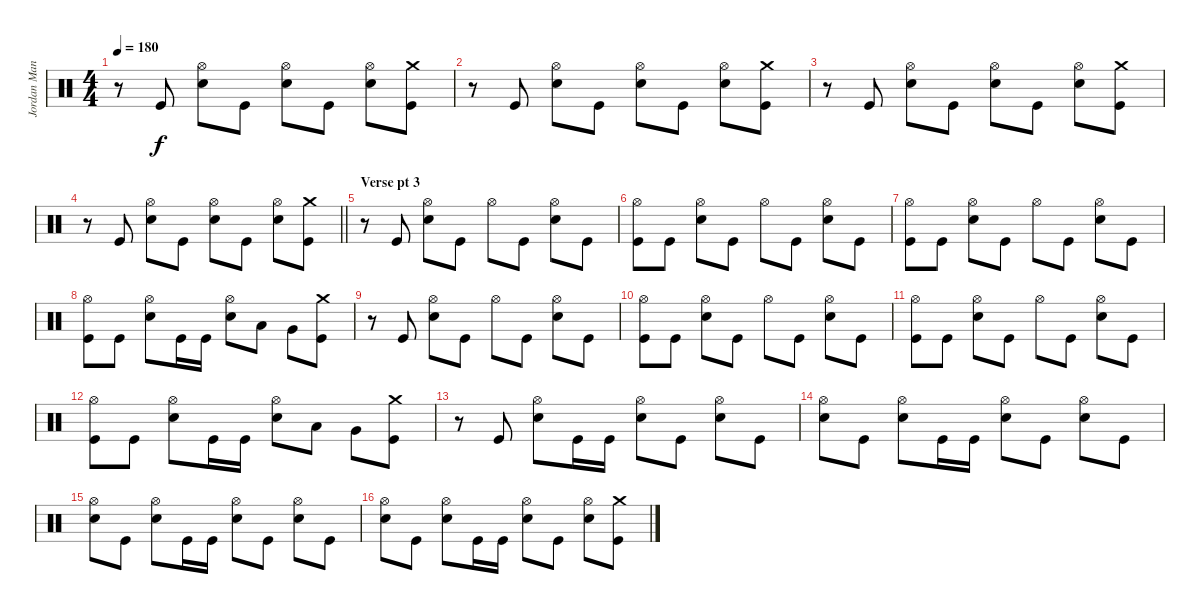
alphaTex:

\track ("Jordan Mancino" "Jordan Man") {instrument percussion}
\staff {score}
\articulation defaults
\ts (4 4)
\tempo 180
\clef neutral
\ks c
r.8{dy f} "Kick (hit)".8 ("Hi-Hat (open)" "Snare (hit) 2").8 "Kick (hit)".8 ("Hi-Hat (open)" "Snare (hit) 2").8 "Kick (hit)".8 ("Hi-Hat (open)" "Snare (hit) 2").8 ("Crash medium (hit)" "Kick (hit)").8 |
r.8 "Kick (hit)".8 ("Hi-Hat (open)" "Snare (hit) 2").8 "Kick (hit)".8 ("Hi-Hat (open)" "Snare (hit) 2").8 "Kick (hit)".8 ("Hi-Hat (open)" "Snare (hit) 2").8 ("Crash medium (hit)" "Kick (hit)").8 |
r.8 "Kick (hit)".8 ("Hi-Hat (open)" "Snare (hit) 2").8 "Kick (hit)".8 ("Hi-Hat (open)" "Snare (hit) 2").8 "Kick (hit)".8 ("Hi-Hat (open)" "Snare (hit) 2").8 ("Crash medium (hit)" "Kick (hit)").8 |
\barLineRight lightlight
r.8 "Kick (hit)".8 ("Hi-Hat (open)" "Snare (hit) 2").8 "Kick (hit)".8 ("Hi-Hat (open)" "Snare (hit) 2").8 "Kick (hit)".8 ("Hi-Hat (open)" "Snare (hit) 2").8 ("Crash medium (hit)" "Kick (hit)").8 |
\section ("" "Verse pt 3")
r.8 "Kick (hit)".8 ("Hi-Hat (open)" "Snare (hit) 2").8 "Kick (hit)".8 "Hi-Hat (open)".8 "Kick (hit)".8 ("Hi-Hat (open)" "Snare (hit) 2").8 "Kick (hit)".8 |
("Hi-Hat (open)" "Kick (hit)").8 "Kick (hit)".8 ("Hi-Hat (open)" "Snare (hit) 2").8 "Kick (hit)".8 "Hi-Hat (open)".8 "Kick (hit)".8 ("Hi-Hat (open)" "Snare (hit) 2").8 "Kick (hit)".8 |
("Hi-Hat (open)" "Kick (hit)").8 "Kick (hit)".8 ("Hi-Hat (open)" "Snare (hit) 2").8 "Kick (hit)".8 "Hi-Hat (open)".8 "Kick (hit)".8 ("Hi-Hat (open)" "Snare (hit) 2").8 "Kick (hit)".8 |
("Hi-Hat (open)" "Kick (hit)").8 "Kick (hit)".8 ("Hi-Hat (open)" "Snare (hit) 2").8 "Kick (hit)".16 "Kick (hit)".16 ("Hi-Hat (open)" "Snare (hit) 2").8 "Low Tom (hit)".8 "Very Low Tom (hit)".8 ("Crash medium (hit)" "Kick (hit)").8 |
r.8 "Kick (hit)".8 ("Hi-Hat (open)" "Snare (hit) 2").8 "Kick (hit)".8 "Hi-Hat (open)".8 "Kick (hit)".8 ("Hi-Hat (open)" "Snare (hit) 2").8 "Kick (hit)".8 |
("Hi-Hat (open)" "Kick (hit)").8 "Kick (hit)".8 ("Hi-Hat (open)" "Snare (hit) 2").8 "Kick (hit)".8 "Hi-Hat (open)".8 "Kick (hit)".8 ("Hi-Hat (open)" "Snare (hit) 2").8 "Kick (hit)".8 |
("Hi-Hat (open)" "Kick (hit)").8 "Kick (hit)".8 ("Hi-Hat (open)" "Snare (hit) 2").8 "Kick (hit)".8 "Hi-Hat (open)".8 "Kick (hit)".8 ("Hi-Hat (open)" "Snare (hit) 2").8 "Kick (hit)".8 |
("Hi-Hat (open)" "Kick (hit)").8 "Kick (hit)".8 ("Hi-Hat (open)" "Snare (hit) 2").8 "Kick (hit)".16 "Kick (hit)".16 ("Hi-Hat (open)" "Snare (hit) 2").8 "Low Tom (hit)".8 "Very Low Tom (hit)".8 ("Crash medium (hit)" "Kick (hit)").8 |
r.8 "Kick (hit)".8 ("Hi-Hat (open)" "Snare (hit) 2").8 "Kick (hit)".16 "Kick (hit)".16 ("Hi-Hat (open)" "Snare (hit) 2").8 "Kick (hit)".8 ("Hi-Hat (open)" "Snare (hit) 2").8 "Kick (hit)".8 |
("Hi-Hat (open)" "Snare (hit) 2").8 "Kick (hit)".8 ("Hi-Hat (open)" "Snare (hit) 2").8 "Kick (hit)".16 "Kick (hit)".16 ("Hi-Hat (open)" "Snare (hit) 2").8 "Kick (hit)".8 ("Hi-Hat (open)" "Snare (hit) 2").8 "Kick (hit)".8 |
("Hi-Hat (open)" "Snare (hit) 2").8 "Kick (hit)".8 ("Hi-Hat (open)" "Snare (hit) 2").8 "Kick (hit)".16 "Kick (hit)".16 ("Hi-Hat (open)" "Snare (hit) 2").8 "Kick (hit)".8 ("Hi-Hat (open)" "Snare (hit) 2").8 "Kick (hit)".8 |
("Hi-Hat (open)" "Snare (hit) 2").8 "Kick (hit)".8 ("Hi-Hat (open)" "Snare (hit) 2").8 "Kick (hit)".16 "Kick (hit)".16 ("Hi-Hat (open)" "Snare (hit) 2").8 "Kick (hit)".8 ("Hi-Hat (open)" "Snare (hit) 2").8 ("Crash medium (hit)" "Kick (hit)").8
